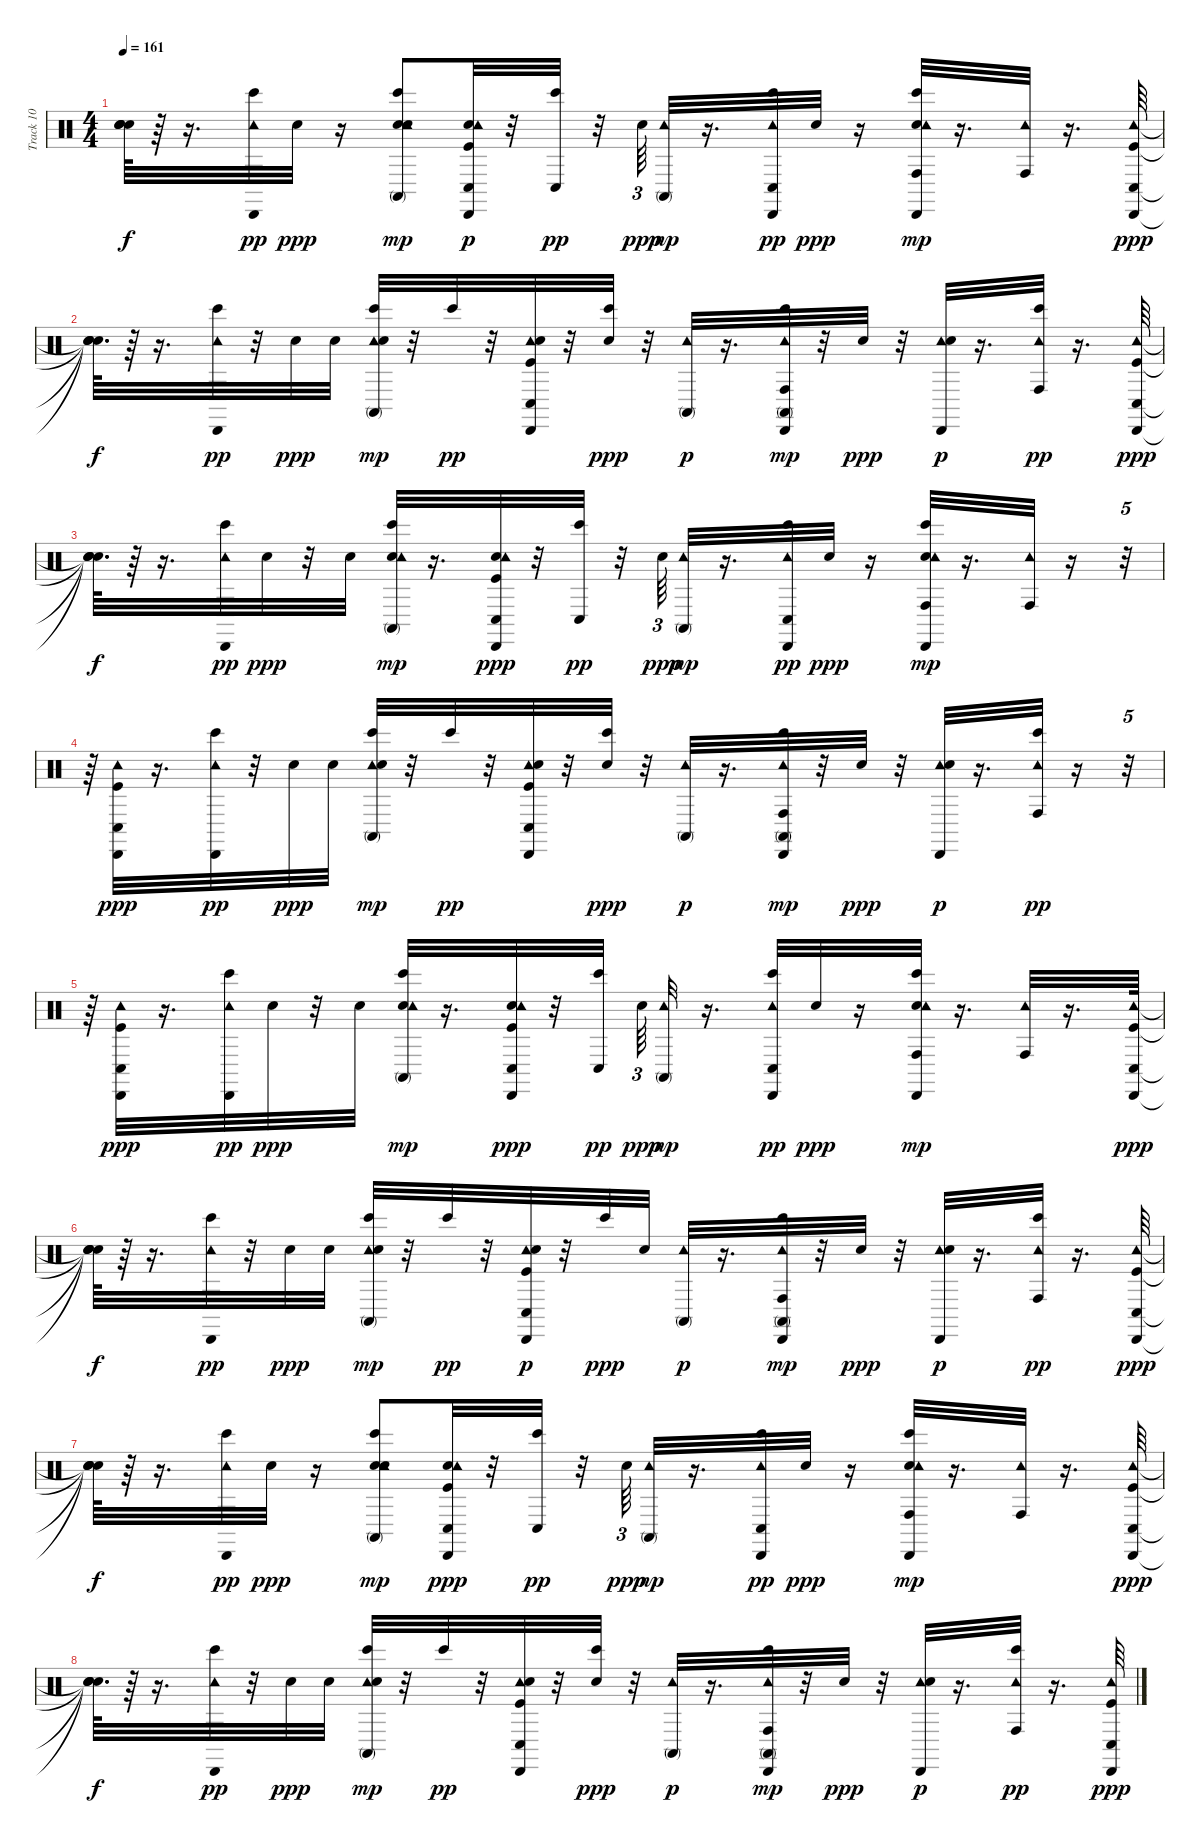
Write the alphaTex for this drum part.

\track ("Track 10" "Track 10") {instrument percussion}
\staff {score}
\articulation defaults
\ts (4 4)
\tempo 161
\clef neutral
\ks c
("Snare (hit)"{t} "Snare (hit)"{t} "Snare (hit)"{t} "Snare (hit)"{t}).64{dy f} r.64 r.16{d} ("Tambourine (hit)" "Cabasa (hit)" "Bongo High (hit)").32{dy pp} "Electric Snare (hit)".32{dy ppp} r.16 ("Electric Snare (hit)" "Electric Snare (hit)" "Tambourine (hit)" "Bongo High (hit)" "Conga high (mute)").8{dy mp} ("Electric Snare (hit)" "Tambourine (hit)" "Cabasa (hit)" "Conga low (hit)" "Kick (hit)").32{dy p} r.32 ("Bongo High (hit)" "Conga low (hit)").32{dy pp} r.32 "Electric Snare (hit)".64{tu (3 2) dy ppp} ("Tambourine (hit)" "Conga high (mute)").32{dy mp} r.16{d} ("Bongo High (hit)" "Tambourine (hit)" "Cabasa (hit)" "Conga low (hit)").32{dy pp} "Electric Snare (hit)".32{dy ppp} r.16 ("Electric Snare (hit)" "Bongo High (hit)" "Tambourine (hit)" "Cabasa (hit)" "Conga high (hit)").32{dy mp} r.16{d} ("Tambourine (hit)" "Conga high (hit)").32 r.16{d} ("Kick (hit)" "Tambourine (hit)" "Cabasa (hit)" "Conga low (hit)").64{dy ppp} |
("Snare (hit)"{t} "Snare (hit)"{t} "Snare (hit)"{t} "Snare (hit)"{t}).64{d dy f} r.64 r.16{d} ("Tambourine (hit)" "Cabasa (hit)" "Bongo High (hit)").32{dy pp} r.32 "Electric Snare (hit)".32{dy ppp} "Electric Snare (hit)".32 ("Tambourine (hit)" "Bongo High (hit)" "Conga high (mute)" "Electric Snare (hit)").32{dy mp} r.32 "Bongo High (hit)".32{dy pp} r.32 ("Tambourine (hit)" "Conga low (hit)" "Cabasa (hit)" "Kick (hit)" "Electric Snare (hit)").32 r.32 ("Bongo High (hit)" "Electric Snare (hit)").32{dy ppp} r.32 ("Tambourine (hit)" "Conga high (mute)").32{dy p} r.16{d} ("Tambourine (hit)" "Cabasa (hit)" "Bongo High (hit)" "Conga high (mute)" "Conga high (hit)").32{dy mp} r.32 "Electric Snare (hit)".32{dy ppp} r.32 ("Tambourine (hit)" "Cabasa (hit)" "Electric Snare (hit)").32{dy p} r.16{d} ("Tambourine (hit)" "Conga high (hit)" "Bongo High (hit)").32{dy pp} r.16{d} ("Kick (hit)" "Tambourine (hit)" "Cabasa (hit)" "Conga low (hit)").64{dy ppp} |
("Snare (hit)"{t} "Snare (hit)"{t} "Snare (hit)"{t} "Snare (hit)"{t}).64{d dy f} r.64 r.16{d} ("Tambourine (hit)" "Cabasa (hit)" "Bongo High (hit)").32{dy pp} "Electric Snare (hit)".32{dy ppp} r.32 "Electric Snare (hit)".32 ("Electric Snare (hit)" "Tambourine (hit)" "Bongo High (hit)" "Conga high (mute)").32{dy mp} r.16{d} ("Kick (hit)" "Electric Snare (hit)" "Tambourine (hit)" "Cabasa (hit)" "Conga low (hit)").32{dy ppp} r.32 ("Bongo High (hit)" "Conga low (hit)").32{dy pp} r.32 "Electric Snare (hit)".64{tu (3 2) dy ppp} ("Tambourine (hit)" "Conga high (mute)").32{dy mp} r.16{d} ("Bongo High (hit)" "Tambourine (hit)" "Cabasa (hit)" "Conga low (hit)").32{dy pp} "Electric Snare (hit)".32{dy ppp} r.16 ("Electric Snare (hit)" "Bongo High (hit)" "Tambourine (hit)" "Cabasa (hit)" "Conga high (hit)").32{dy mp} r.16{d} ("Tambourine (hit)" "Conga high (hit)").32 r.16 r.32{tu (5 4)} |
r.64 ("Kick (hit)" "Tambourine (hit)" "Cabasa (hit)" "Conga low (hit)").32{dy ppp} r.16{d} ("Tambourine (hit)" "Cabasa (hit)" "Bongo High (hit)").32{dy pp} r.32 "Electric Snare (hit)".32{dy ppp} "Electric Snare (hit)".32 ("Tambourine (hit)" "Bongo High (hit)" "Conga high (mute)" "Electric Snare (hit)").32{dy mp} r.32 "Bongo High (hit)".32{dy pp} r.32 ("Tambourine (hit)" "Conga low (hit)" "Cabasa (hit)" "Kick (hit)" "Electric Snare (hit)").32 r.32 ("Bongo High (hit)" "Electric Snare (hit)").32{dy ppp} r.32 ("Tambourine (hit)" "Conga high (mute)").32{dy p} r.16{d} ("Tambourine (hit)" "Cabasa (hit)" "Bongo High (hit)" "Conga high (mute)" "Conga high (hit)").32{dy mp} r.32 "Electric Snare (hit)".32{dy ppp} r.32 ("Tambourine (hit)" "Cabasa (hit)" "Electric Snare (hit)").32{dy p} r.16{d} ("Tambourine (hit)" "Conga high (hit)" "Bongo High (hit)").32{dy pp} r.16 r.32{tu (5 4)} |
r.64 ("Kick (hit)" "Tambourine (hit)" "Cabasa (hit)" "Conga low (hit)").32{dy ppp} r.16{d} ("Tambourine (hit)" "Cabasa (hit)" "Bongo High (hit)").32{dy pp} "Electric Snare (hit)".32{dy ppp} r.32 "Electric Snare (hit)".32 ("Electric Snare (hit)" "Tambourine (hit)" "Bongo High (hit)" "Conga high (mute)").32{dy mp} r.16{d} ("Kick (hit)" "Electric Snare (hit)" "Tambourine (hit)" "Cabasa (hit)" "Conga low (hit)").32{dy ppp} r.32 ("Bongo High (hit)" "Conga low (hit)").32{dy pp beam splitsecondary} "Electric Snare (hit)".64{tu (3 2) dy ppp} ("Tambourine (hit)" "Conga high (mute)").32{dy mp} r.16{d} ("Bongo High (hit)" "Tambourine (hit)" "Cabasa (hit)" "Conga low (hit)").32{dy pp} "Electric Snare (hit)".32{dy ppp} r.16 ("Electric Snare (hit)" "Bongo High (hit)" "Tambourine (hit)" "Cabasa (hit)" "Conga high (hit)").32{dy mp} r.16{d} ("Tambourine (hit)" "Conga high (hit)").32 r.16{d} ("Kick (hit)" "Tambourine (hit)" "Cabasa (hit)" "Conga low (hit)").64{dy ppp} |
("Snare (hit)"{t} "Snare (hit)"{t} "Snare (hit)"{t} "Snare (hit)"{t}).64{dy f} r.64 r.16{d} ("Tambourine (hit)" "Cabasa (hit)" "Bongo High (hit)").32{dy pp} r.32 "Electric Snare (hit)".32{dy ppp} "Electric Snare (hit)".32 ("Tambourine (hit)" "Bongo High (hit)" "Conga high (mute)" "Electric Snare (hit)").32{dy mp} r.32 "Bongo High (hit)".32{dy pp} r.32 ("Tambourine (hit)" "Conga low (hit)" "Cabasa (hit)" "Electric Snare (hit)" "Kick (hit)").32{dy p} r.32 "Bongo High (hit)".32{dy ppp} "Electric Snare (hit)".32 ("Tambourine (hit)" "Conga high (mute)").32{dy p} r.16{d} ("Tambourine (hit)" "Cabasa (hit)" "Bongo High (hit)" "Conga high (mute)" "Conga high (hit)").32{dy mp} r.32 "Electric Snare (hit)".32{dy ppp} r.32 ("Tambourine (hit)" "Cabasa (hit)" "Electric Snare (hit)").32{dy p} r.16{d} ("Tambourine (hit)" "Conga high (hit)" "Bongo High (hit)").32{dy pp} r.16{d} ("Kick (hit)" "Tambourine (hit)" "Cabasa (hit)" "Conga low (hit)").64{dy ppp} |
("Snare (hit)"{t} "Snare (hit)"{t} "Snare (hit)"{t} "Snare (hit)"{t}).64{dy f} r.64 r.16{d} ("Tambourine (hit)" "Cabasa (hit)" "Bongo High (hit)").32{dy pp} "Electric Snare (hit)".32{dy ppp} r.16 ("Electric Snare (hit)" "Electric Snare (hit)" "Tambourine (hit)" "Bongo High (hit)" "Conga high (mute)").8{dy mp} ("Kick (hit)" "Electric Snare (hit)" "Tambourine (hit)" "Cabasa (hit)" "Conga low (hit)").32{dy ppp} r.32 ("Bongo High (hit)" "Conga low (hit)").32{dy pp} r.32 "Electric Snare (hit)".64{tu (3 2) dy ppp} ("Tambourine (hit)" "Conga high (mute)").32{dy mp} r.16{d} ("Bongo High (hit)" "Tambourine (hit)" "Cabasa (hit)" "Conga low (hit)").32{dy pp} "Electric Snare (hit)".32{dy ppp} r.16 ("Electric Snare (hit)" "Bongo High (hit)" "Tambourine (hit)" "Cabasa (hit)" "Conga high (hit)").32{dy mp} r.16{d} ("Tambourine (hit)" "Conga high (hit)").32 r.16{d} ("Kick (hit)" "Tambourine (hit)" "Cabasa (hit)" "Conga low (hit)").64{dy ppp} |
("Snare (hit)"{t} "Snare (hit)"{t} "Snare (hit)"{t} "Snare (hit)"{t}).64{d dy f} r.64 r.16{d} ("Tambourine (hit)" "Cabasa (hit)" "Bongo High (hit)").32{dy pp} r.32 "Electric Snare (hit)".32{dy ppp} "Electric Snare (hit)".32 ("Tambourine (hit)" "Bongo High (hit)" "Conga high (mute)" "Electric Snare (hit)").32{dy mp} r.32 "Bongo High (hit)".32{dy pp} r.32 ("Tambourine (hit)" "Conga low (hit)" "Cabasa (hit)" "Kick (hit)" "Electric Snare (hit)").32 r.32 ("Bongo High (hit)" "Electric Snare (hit)").32{dy ppp} r.32 ("Tambourine (hit)" "Conga high (mute)").32{dy p} r.16{d} ("Tambourine (hit)" "Cabasa (hit)" "Bongo High (hit)" "Conga high (mute)" "Conga high (hit)").32{dy mp} r.32 "Electric Snare (hit)".32{dy ppp} r.32 ("Tambourine (hit)" "Cabasa (hit)" "Electric Snare (hit)").32{dy p} r.16{d} ("Tambourine (hit)" "Conga high (hit)" "Bongo High (hit)").32{dy pp} r.16{d} ("Kick (hit)" "Tambourine (hit)" "Cabasa (hit)" "Conga low (hit)").64{dy ppp}
